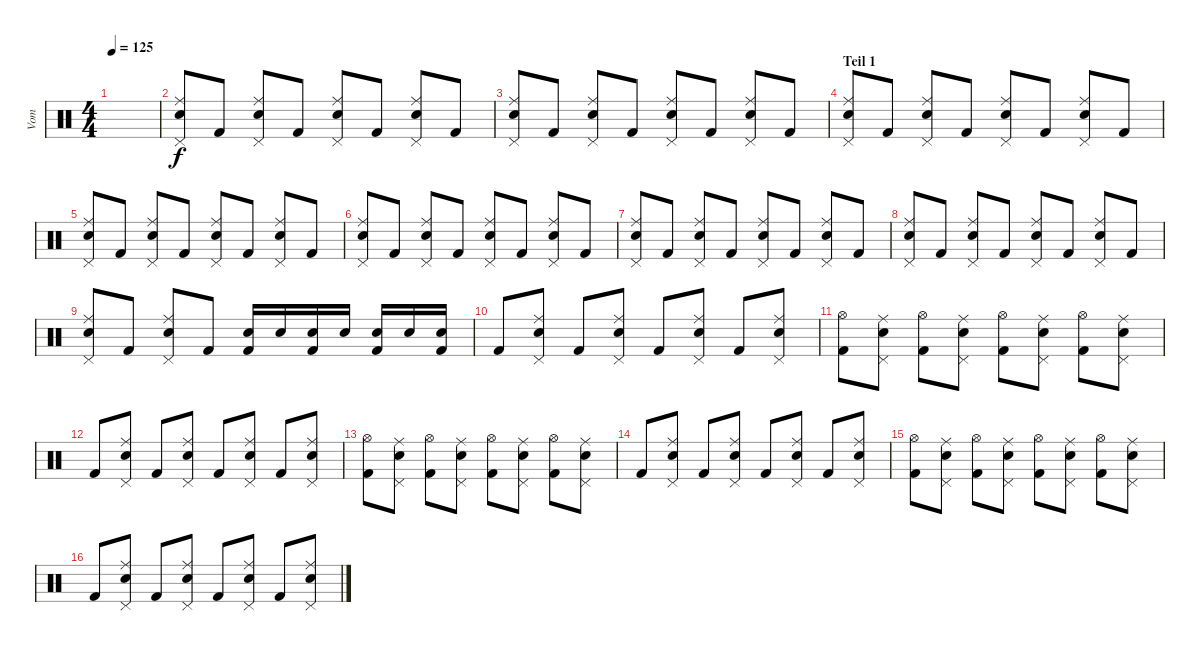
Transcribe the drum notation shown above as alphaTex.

\track ("Vom" "Vom") {instrument percussion}
\staff {score}
\articulation defaults
\ts (4 4)
\tempo 125
\clef neutral
\ks c
|
("Snare (hit) 2" "Ride (middle)" "Pedal Hi-Hat (hit)").8 "Kick (hit) 2".8 ("Snare (hit) 2" "Ride (middle)" "Pedal Hi-Hat (hit)").8 "Kick (hit) 2".8 ("Snare (hit) 2" "Ride (middle)" "Pedal Hi-Hat (hit)").8 "Kick (hit) 2".8 ("Snare (hit) 2" "Ride (middle)" "Pedal Hi-Hat (hit)").8 "Kick (hit) 2".8 |
("Snare (hit) 2" "Ride (middle)" "Pedal Hi-Hat (hit)").8 "Kick (hit) 2".8 ("Snare (hit) 2" "Ride (middle)" "Pedal Hi-Hat (hit)").8 "Kick (hit) 2".8 ("Snare (hit) 2" "Ride (middle)" "Pedal Hi-Hat (hit)").8 "Kick (hit) 2".8 ("Snare (hit) 2" "Ride (middle)" "Pedal Hi-Hat (hit)").8 "Kick (hit) 2".8 |
\section ("" "Teil 1")
("Snare (hit) 2" "Ride (middle)" "Pedal Hi-Hat (hit)").8 "Kick (hit) 2".8 ("Snare (hit) 2" "Ride (middle)" "Pedal Hi-Hat (hit)").8 "Kick (hit) 2".8 ("Snare (hit) 2" "Ride (middle)" "Pedal Hi-Hat (hit)").8 "Kick (hit) 2".8 ("Snare (hit) 2" "Ride (middle)" "Pedal Hi-Hat (hit)").8 "Kick (hit) 2".8 |
("Snare (hit) 2" "Ride (middle)" "Pedal Hi-Hat (hit)").8 "Kick (hit) 2".8 ("Snare (hit) 2" "Ride (middle)" "Pedal Hi-Hat (hit)").8 "Kick (hit) 2".8 ("Snare (hit) 2" "Ride (middle)" "Pedal Hi-Hat (hit)").8 "Kick (hit) 2".8 ("Snare (hit) 2" "Ride (middle)" "Pedal Hi-Hat (hit)").8 "Kick (hit) 2".8 |
("Snare (hit) 2" "Ride (middle)" "Pedal Hi-Hat (hit)").8 "Kick (hit) 2".8 ("Snare (hit) 2" "Ride (middle)" "Pedal Hi-Hat (hit)").8 "Kick (hit) 2".8 ("Snare (hit) 2" "Ride (middle)" "Pedal Hi-Hat (hit)").8 "Kick (hit) 2".8 ("Snare (hit) 2" "Ride (middle)" "Pedal Hi-Hat (hit)").8 "Kick (hit) 2".8 |
("Snare (hit) 2" "Ride (middle)" "Pedal Hi-Hat (hit)").8 "Kick (hit) 2".8 ("Snare (hit) 2" "Ride (middle)" "Pedal Hi-Hat (hit)").8 "Kick (hit) 2".8 ("Snare (hit) 2" "Ride (middle)" "Pedal Hi-Hat (hit)").8 "Kick (hit) 2".8 ("Snare (hit) 2" "Ride (middle)" "Pedal Hi-Hat (hit)").8 "Kick (hit) 2".8 |
("Snare (hit) 2" "Ride (middle)" "Pedal Hi-Hat (hit)").8 "Kick (hit) 2".8 ("Snare (hit) 2" "Ride (middle)" "Pedal Hi-Hat (hit)").8 "Kick (hit) 2".8 ("Snare (hit) 2" "Ride (middle)" "Pedal Hi-Hat (hit)").8 "Kick (hit) 2".8 ("Snare (hit) 2" "Ride (middle)" "Pedal Hi-Hat (hit)").8 "Kick (hit) 2".8 |
("Snare (hit) 2" "Ride (middle)" "Pedal Hi-Hat (hit)").8 "Kick (hit) 2".8 ("Snare (hit) 2" "Ride (middle)" "Pedal Hi-Hat (hit)").8 "Kick (hit) 2".8 ("Snare (hit) 2" "Kick (hit) 2").16 "Snare (hit) 2".16 ("Snare (hit) 2" "Kick (hit) 2").16 "Snare (hit) 2".16 ("Snare (hit) 2" "Kick (hit) 2").16 "Snare (hit) 2".16 ("Snare (hit) 2" "Kick (hit) 2").16 |
"Kick (hit) 2".8 ("Snare (hit) 2" "Pedal Hi-Hat (hit)" "Ride (middle)").8 "Kick (hit) 2".8 ("Snare (hit) 2" "Pedal Hi-Hat (hit)" "Ride (middle)").8 "Kick (hit) 2".8 ("Snare (hit) 2" "Pedal Hi-Hat (hit)" "Ride (middle)").8 "Kick (hit) 2".8 ("Snare (hit) 2" "Pedal Hi-Hat (hit)" "Ride (middle)").8 |
("Kick (hit) 2" "Hi-Hat (open)").8 ("Snare (hit) 2" "Pedal Hi-Hat (hit)" "Ride (middle)").8 ("Kick (hit) 2" "Hi-Hat (open)").8 ("Snare (hit) 2" "Pedal Hi-Hat (hit)" "Ride (middle)").8 ("Kick (hit) 2" "Hi-Hat (open)").8 ("Snare (hit) 2" "Pedal Hi-Hat (hit)" "Ride (middle)").8 ("Kick (hit) 2" "Hi-Hat (open)").8 ("Snare (hit) 2" "Pedal Hi-Hat (hit)" "Ride (middle)").8 |
"Kick (hit) 2".8 ("Snare (hit) 2" "Pedal Hi-Hat (hit)" "Ride (middle)").8 "Kick (hit) 2".8 ("Snare (hit) 2" "Pedal Hi-Hat (hit)" "Ride (middle)").8 "Kick (hit) 2".8 ("Snare (hit) 2" "Pedal Hi-Hat (hit)" "Ride (middle)").8 "Kick (hit) 2".8 ("Snare (hit) 2" "Pedal Hi-Hat (hit)" "Ride (middle)").8 |
("Kick (hit) 2" "Hi-Hat (open)").8 ("Snare (hit) 2" "Pedal Hi-Hat (hit)" "Ride (middle)").8 ("Kick (hit) 2" "Hi-Hat (open)").8 ("Snare (hit) 2" "Pedal Hi-Hat (hit)" "Ride (middle)").8 ("Kick (hit) 2" "Hi-Hat (open)").8 ("Snare (hit) 2" "Pedal Hi-Hat (hit)" "Ride (middle)").8 ("Kick (hit) 2" "Hi-Hat (open)").8 ("Snare (hit) 2" "Pedal Hi-Hat (hit)" "Ride (middle)").8 |
"Kick (hit) 2".8 ("Snare (hit) 2" "Pedal Hi-Hat (hit)" "Ride (middle)").8 "Kick (hit) 2".8 ("Snare (hit) 2" "Pedal Hi-Hat (hit)" "Ride (middle)").8 "Kick (hit) 2".8 ("Snare (hit) 2" "Pedal Hi-Hat (hit)" "Ride (middle)").8 "Kick (hit) 2".8 ("Snare (hit) 2" "Pedal Hi-Hat (hit)" "Ride (middle)").8 |
("Kick (hit) 2" "Hi-Hat (open)").8 ("Snare (hit) 2" "Pedal Hi-Hat (hit)" "Ride (middle)").8 ("Kick (hit) 2" "Hi-Hat (open)").8 ("Snare (hit) 2" "Pedal Hi-Hat (hit)" "Ride (middle)").8 ("Kick (hit) 2" "Hi-Hat (open)").8 ("Snare (hit) 2" "Pedal Hi-Hat (hit)" "Ride (middle)").8 ("Kick (hit) 2" "Hi-Hat (open)").8 ("Snare (hit) 2" "Pedal Hi-Hat (hit)" "Ride (middle)").8 |
"Kick (hit) 2".8 ("Snare (hit) 2" "Pedal Hi-Hat (hit)" "Ride (middle)").8 "Kick (hit) 2".8 ("Snare (hit) 2" "Pedal Hi-Hat (hit)" "Ride (middle)").8 "Kick (hit) 2".8 ("Snare (hit) 2" "Pedal Hi-Hat (hit)" "Ride (middle)").8 "Kick (hit) 2".8 ("Snare (hit) 2" "Pedal Hi-Hat (hit)" "Ride (middle)").8
